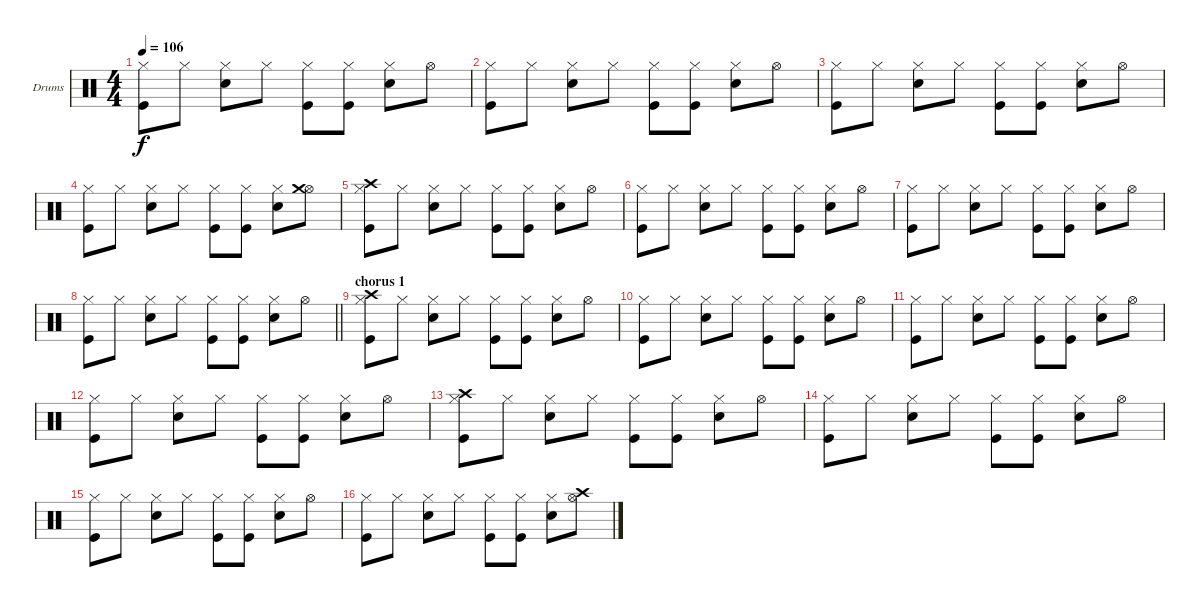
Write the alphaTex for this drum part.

\bracketExtendMode groupsimilarinstruments
\firstSystemTrackNameOrientation horizontal
\otherSystemsTrackNameOrientation horizontal
\track ("Drumkit" "Drums") {instrument percussion}
\staff {score}
\articulation defaults
\ts (4 4)
\tempo 106
\clef neutral
\ks c
("Hi-Hat (closed)" "Kick (hit)").8{dy f} "Hi-Hat (closed)".8 ("Hi-Hat (closed)" "Snare (hit) 2").8 "Hi-Hat (closed)".8 ("Hi-Hat (closed)" "Kick (hit)").8 ("Hi-Hat (closed)" "Kick (hit)").8 ("Hi-Hat (closed)" "Snare (hit) 2").8 "Hi-Hat (open)".8 |
("Hi-Hat (closed)" "Kick (hit)").8 "Hi-Hat (closed)".8 ("Hi-Hat (closed)" "Snare (hit) 2").8 "Hi-Hat (closed)".8 ("Hi-Hat (closed)" "Kick (hit)").8 ("Hi-Hat (closed)" "Kick (hit)").8 ("Hi-Hat (closed)" "Snare (hit) 2").8 "Hi-Hat (open)".8 |
("Hi-Hat (closed)" "Kick (hit)").8 "Hi-Hat (closed)".8 ("Hi-Hat (closed)" "Snare (hit) 2").8 "Hi-Hat (closed)".8 ("Hi-Hat (closed)" "Kick (hit)").8 ("Hi-Hat (closed)" "Kick (hit)").8 ("Hi-Hat (closed)" "Snare (hit) 2").8 "Hi-Hat (open)".8 |
("Hi-Hat (closed)" "Kick (hit)").8 "Hi-Hat (closed)".8 ("Hi-Hat (closed)" "Snare (hit) 2").8 "Hi-Hat (closed)".8 ("Hi-Hat (closed)" "Kick (hit)").8 ("Hi-Hat (closed)" "Kick (hit)").8 ("Hi-Hat (closed)" "Snare (hit) 2").8 ("Hi-Hat (open)" "Crash medium (hit)").8 |
("Hi-Hat (closed)" "Crash high (hit)" "Kick (hit)").8 "Hi-Hat (closed)".8 ("Hi-Hat (closed)" "Snare (hit) 2").8 "Hi-Hat (closed)".8 ("Hi-Hat (closed)" "Kick (hit)").8 ("Hi-Hat (closed)" "Kick (hit)").8 ("Hi-Hat (closed)" "Snare (hit) 2").8 "Hi-Hat (open)".8 |
("Hi-Hat (closed)" "Kick (hit)").8 "Hi-Hat (closed)".8 ("Hi-Hat (closed)" "Snare (hit) 2").8 "Hi-Hat (closed)".8 ("Hi-Hat (closed)" "Kick (hit)").8 ("Hi-Hat (closed)" "Kick (hit)").8 ("Hi-Hat (closed)" "Snare (hit) 2").8 "Hi-Hat (open)".8 |
("Hi-Hat (closed)" "Kick (hit)").8 "Hi-Hat (closed)".8 ("Hi-Hat (closed)" "Snare (hit) 2").8 "Hi-Hat (closed)".8 ("Hi-Hat (closed)" "Kick (hit)").8 ("Hi-Hat (closed)" "Kick (hit)").8 ("Hi-Hat (closed)" "Snare (hit) 2").8 "Hi-Hat (open)".8 |
\barLineRight lightlight
("Hi-Hat (closed)" "Kick (hit)").8 "Hi-Hat (closed)".8 ("Hi-Hat (closed)" "Snare (hit) 2").8 "Hi-Hat (closed)".8 ("Hi-Hat (closed)" "Kick (hit)").8 ("Hi-Hat (closed)" "Kick (hit)").8 ("Hi-Hat (closed)" "Snare (hit) 2").8 "Hi-Hat (open)".8 |
\section ("" "chorus 1")
("Hi-Hat (closed)" "Crash high (hit)" "Kick (hit)").8 "Hi-Hat (closed)".8 ("Hi-Hat (closed)" "Snare (hit) 2").8 "Hi-Hat (closed)".8 ("Hi-Hat (closed)" "Kick (hit)").8 ("Hi-Hat (closed)" "Kick (hit)").8 ("Hi-Hat (closed)" "Snare (hit) 2").8 "Hi-Hat (open)".8 |
("Hi-Hat (closed)" "Kick (hit)").8 "Hi-Hat (closed)".8 ("Hi-Hat (closed)" "Snare (hit) 2").8 "Hi-Hat (closed)".8 ("Hi-Hat (closed)" "Kick (hit)").8 ("Hi-Hat (closed)" "Kick (hit)").8 ("Hi-Hat (closed)" "Snare (hit) 2").8 "Hi-Hat (open)".8 |
("Hi-Hat (closed)" "Kick (hit)").8 "Hi-Hat (closed)".8 ("Hi-Hat (closed)" "Snare (hit) 2").8 "Hi-Hat (closed)".8 ("Hi-Hat (closed)" "Kick (hit)").8 ("Hi-Hat (closed)" "Kick (hit)").8 ("Hi-Hat (closed)" "Snare (hit) 2").8 "Hi-Hat (open)".8 |
("Hi-Hat (closed)" "Kick (hit)").8 "Hi-Hat (closed)".8 ("Hi-Hat (closed)" "Snare (hit) 2").8 "Hi-Hat (closed)".8 ("Hi-Hat (closed)" "Kick (hit)").8 ("Hi-Hat (closed)" "Kick (hit)").8 ("Hi-Hat (closed)" "Snare (hit) 2").8 "Hi-Hat (open)".8 |
("Hi-Hat (closed)" "Crash high (hit)" "Kick (hit)").8 "Hi-Hat (closed)".8 ("Hi-Hat (closed)" "Snare (hit) 2").8 "Hi-Hat (closed)".8 ("Hi-Hat (closed)" "Kick (hit)").8 ("Hi-Hat (closed)" "Kick (hit)").8 ("Hi-Hat (closed)" "Snare (hit) 2").8 "Hi-Hat (open)".8 |
("Hi-Hat (closed)" "Kick (hit)").8 "Hi-Hat (closed)".8 ("Hi-Hat (closed)" "Snare (hit) 2").8 "Hi-Hat (closed)".8 ("Hi-Hat (closed)" "Kick (hit)").8 ("Hi-Hat (closed)" "Kick (hit)").8 ("Hi-Hat (closed)" "Snare (hit) 2").8 "Hi-Hat (open)".8 |
("Hi-Hat (closed)" "Kick (hit)").8 "Hi-Hat (closed)".8 ("Hi-Hat (closed)" "Snare (hit) 2").8 "Hi-Hat (closed)".8 ("Hi-Hat (closed)" "Kick (hit)").8 ("Hi-Hat (closed)" "Kick (hit)").8 ("Hi-Hat (closed)" "Snare (hit) 2").8 "Hi-Hat (open)".8 |
("Hi-Hat (closed)" "Kick (hit)").8 "Hi-Hat (closed)".8 ("Hi-Hat (closed)" "Snare (hit) 2").8 "Hi-Hat (closed)".8 ("Hi-Hat (closed)" "Kick (hit)").8 ("Hi-Hat (closed)" "Kick (hit)").8 ("Hi-Hat (closed)" "Snare (hit) 2").8 ("Hi-Hat (open)" "Crash high (hit)").8
